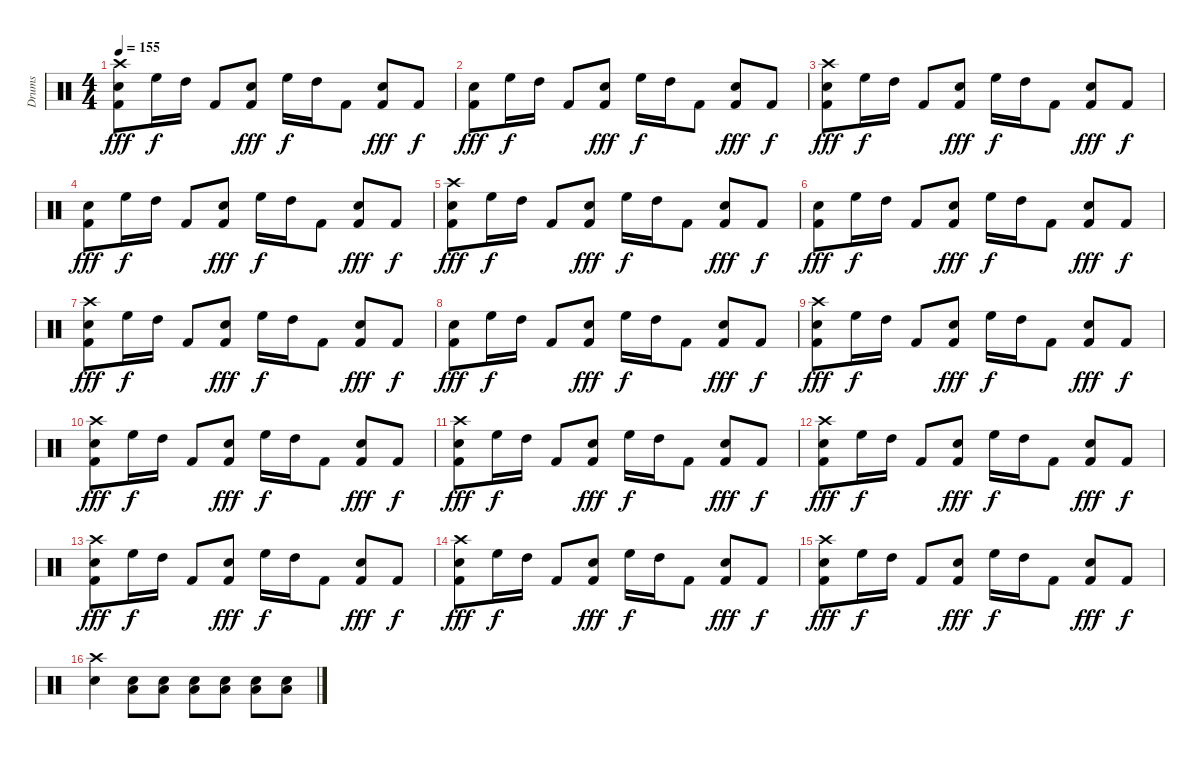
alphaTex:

\track ("Drums" "Drums") {instrument percussion}
\staff {score}
\articulation defaults
\ts (4 4)
\tempo 155
\clef neutral
\ks c
("Crash high (hit)" "Electric Snare (hit)" "Kick (hit) 2").8{dy fff} "High Floor Tom (hit)".16{dy f} "High Tom (hit)".16 "Kick (hit) 2".8 ("Electric Snare (hit)" "Kick (hit) 2").8{dy fff} "High Floor Tom (hit)".16{dy f} "High Tom (hit)".16 "Kick (hit) 2".8 ("Electric Snare (hit)" "Kick (hit) 2").8{dy fff} "Kick (hit) 2".8{dy f} |
("Electric Snare (hit)" "Kick (hit) 2").8{dy fff} "High Floor Tom (hit)".16{dy f} "High Tom (hit)".16 "Kick (hit) 2".8 ("Electric Snare (hit)" "Kick (hit) 2").8{dy fff} "High Floor Tom (hit)".16{dy f} "High Tom (hit)".16 "Kick (hit) 2".8 ("Electric Snare (hit)" "Kick (hit) 2").8{dy fff} "Kick (hit) 2".8{dy f} |
("Crash high (hit)" "Electric Snare (hit)" "Kick (hit) 2").8{dy fff} "High Floor Tom (hit)".16{dy f} "High Tom (hit)".16 "Kick (hit) 2".8 ("Electric Snare (hit)" "Kick (hit) 2").8{dy fff} "High Floor Tom (hit)".16{dy f} "High Tom (hit)".16 "Kick (hit) 2".8 ("Electric Snare (hit)" "Kick (hit) 2").8{dy fff} "Kick (hit) 2".8{dy f} |
("Electric Snare (hit)" "Kick (hit) 2").8{dy fff} "High Floor Tom (hit)".16{dy f} "High Tom (hit)".16 "Kick (hit) 2".8 ("Electric Snare (hit)" "Kick (hit) 2").8{dy fff} "High Floor Tom (hit)".16{dy f} "High Tom (hit)".16 "Kick (hit) 2".8 ("Electric Snare (hit)" "Kick (hit) 2").8{dy fff} "Kick (hit) 2".8{dy f} |
("Crash high (hit)" "Electric Snare (hit)" "Kick (hit) 2").8{dy fff} "High Floor Tom (hit)".16{dy f} "High Tom (hit)".16 "Kick (hit) 2".8 ("Electric Snare (hit)" "Kick (hit) 2").8{dy fff} "High Floor Tom (hit)".16{dy f} "High Tom (hit)".16 "Kick (hit) 2".8 ("Electric Snare (hit)" "Kick (hit) 2").8{dy fff} "Kick (hit) 2".8{dy f} |
("Electric Snare (hit)" "Kick (hit) 2").8{dy fff} "High Floor Tom (hit)".16{dy f} "High Tom (hit)".16 "Kick (hit) 2".8 ("Electric Snare (hit)" "Kick (hit) 2").8{dy fff} "High Floor Tom (hit)".16{dy f} "High Tom (hit)".16 "Kick (hit) 2".8 ("Electric Snare (hit)" "Kick (hit) 2").8{dy fff} "Kick (hit) 2".8{dy f} |
("Crash high (hit)" "Electric Snare (hit)" "Kick (hit) 2").8{dy fff} "High Floor Tom (hit)".16{dy f} "High Tom (hit)".16 "Kick (hit) 2".8 ("Electric Snare (hit)" "Kick (hit) 2").8{dy fff} "High Floor Tom (hit)".16{dy f} "High Tom (hit)".16 "Kick (hit) 2".8 ("Electric Snare (hit)" "Kick (hit) 2").8{dy fff} "Kick (hit) 2".8{dy f} |
("Electric Snare (hit)" "Kick (hit) 2").8{dy fff} "High Floor Tom (hit)".16{dy f} "High Tom (hit)".16 "Kick (hit) 2".8 ("Electric Snare (hit)" "Kick (hit) 2").8{dy fff} "High Floor Tom (hit)".16{dy f} "High Tom (hit)".16 "Kick (hit) 2".8 ("Electric Snare (hit)" "Kick (hit) 2").8{dy fff} "Kick (hit) 2".8{dy f} |
("Crash high (hit)" "Electric Snare (hit)" "Kick (hit) 2").8{dy fff} "High Floor Tom (hit)".16{dy f} "High Tom (hit)".16 "Kick (hit) 2".8 ("Electric Snare (hit)" "Kick (hit) 2").8{dy fff} "High Floor Tom (hit)".16{dy f} "High Tom (hit)".16 "Kick (hit) 2".8 ("Electric Snare (hit)" "Kick (hit) 2").8{dy fff} "Kick (hit) 2".8{dy f} |
("Crash high (hit)" "Electric Snare (hit)" "Kick (hit) 2").8{dy fff} "High Floor Tom (hit)".16{dy f} "High Tom (hit)".16 "Kick (hit) 2".8 ("Electric Snare (hit)" "Kick (hit) 2").8{dy fff} "High Floor Tom (hit)".16{dy f} "High Tom (hit)".16 "Kick (hit) 2".8 ("Electric Snare (hit)" "Kick (hit) 2").8{dy fff} "Kick (hit) 2".8{dy f} |
("Crash high (hit)" "Electric Snare (hit)" "Kick (hit) 2").8{dy fff} "High Floor Tom (hit)".16{dy f} "High Tom (hit)".16 "Kick (hit) 2".8 ("Electric Snare (hit)" "Kick (hit) 2").8{dy fff} "High Floor Tom (hit)".16{dy f} "High Tom (hit)".16 "Kick (hit) 2".8 ("Electric Snare (hit)" "Kick (hit) 2").8{dy fff} "Kick (hit) 2".8{dy f} |
("Crash high (hit)" "Electric Snare (hit)" "Kick (hit) 2").8{dy fff} "High Floor Tom (hit)".16{dy f} "High Tom (hit)".16 "Kick (hit) 2".8 ("Electric Snare (hit)" "Kick (hit) 2").8{dy fff} "High Floor Tom (hit)".16{dy f} "High Tom (hit)".16 "Kick (hit) 2".8 ("Electric Snare (hit)" "Kick (hit) 2").8{dy fff} "Kick (hit) 2".8{dy f} |
("Crash high (hit)" "Electric Snare (hit)" "Kick (hit) 2").8{dy fff} "High Floor Tom (hit)".16{dy f} "High Tom (hit)".16 "Kick (hit) 2".8 ("Electric Snare (hit)" "Kick (hit) 2").8{dy fff} "High Floor Tom (hit)".16{dy f} "High Tom (hit)".16 "Kick (hit) 2".8 ("Electric Snare (hit)" "Kick (hit) 2").8{dy fff} "Kick (hit) 2".8{dy f} |
("Crash high (hit)" "Electric Snare (hit)" "Kick (hit) 2").8{dy fff} "High Floor Tom (hit)".16{dy f} "High Tom (hit)".16 "Kick (hit) 2".8 ("Electric Snare (hit)" "Kick (hit) 2").8{dy fff} "High Floor Tom (hit)".16{dy f} "High Tom (hit)".16 "Kick (hit) 2".8 ("Electric Snare (hit)" "Kick (hit) 2").8{dy fff} "Kick (hit) 2".8{dy f} |
("Crash high (hit)" "Electric Snare (hit)" "Kick (hit) 2").8{dy fff} "High Floor Tom (hit)".16{dy f} "High Tom (hit)".16 "Kick (hit) 2".8 ("Electric Snare (hit)" "Kick (hit) 2").8{dy fff} "High Floor Tom (hit)".16{dy f} "High Tom (hit)".16 "Kick (hit) 2".8 ("Electric Snare (hit)" "Kick (hit) 2").8{dy fff} "Kick (hit) 2".8{dy f} |
("Crash high (hit)" "Electric Snare (hit)").4 ("Electric Snare (hit)" "Low Floor Tom (hit)").8 ("Electric Snare (hit)" "Low Floor Tom (hit)").8 ("Electric Snare (hit)" "Low Floor Tom (hit)").8 ("Electric Snare (hit)" "Low Floor Tom (hit)").8 ("Electric Snare (hit)" "Low Floor Tom (hit)").8 ("Electric Snare (hit)" "Low Floor Tom (hit)").8
